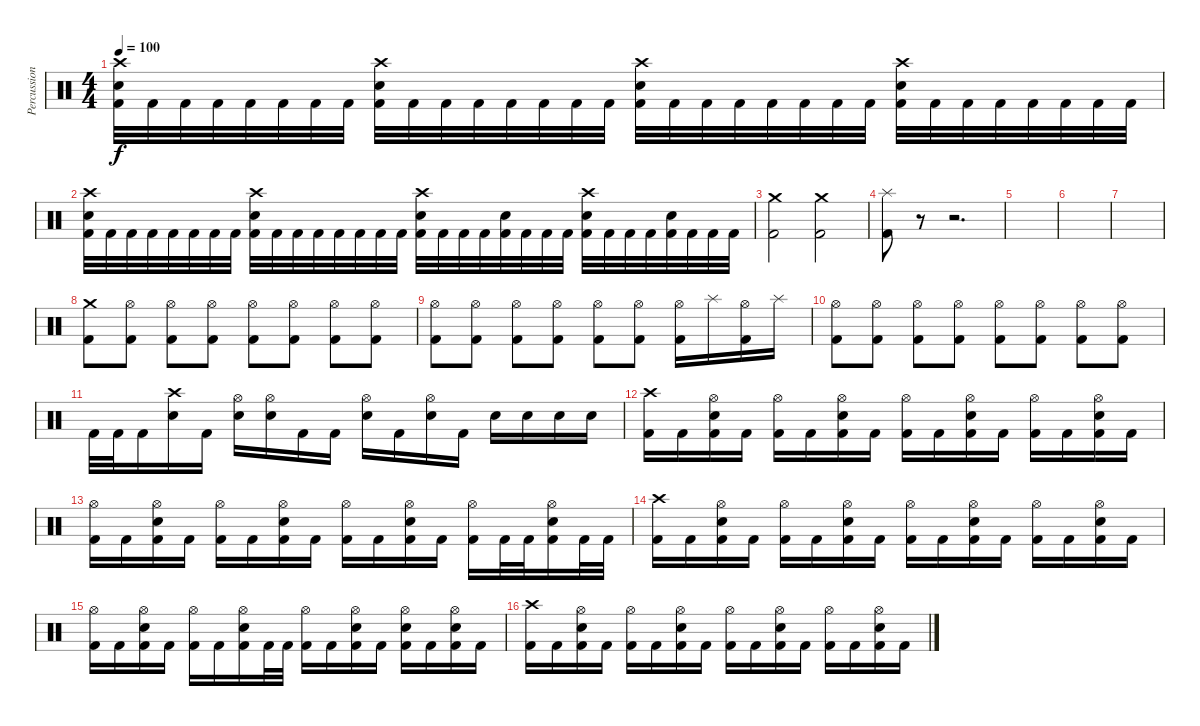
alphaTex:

\track ("Percussion" "Percussion") {instrument percussion}
\staff {score}
\articulation defaults
\ts (4 4)
\tempo 100
\clef neutral
\ks c
("Crash high (hit)" "Electric Snare (hit)" "Kick (hit) 2").32{dy f} "Kick (hit) 2".32 "Kick (hit) 2".32 "Kick (hit) 2".32 "Kick (hit) 2".32 "Kick (hit) 2".32 "Kick (hit) 2".32 "Kick (hit) 2".32 ("Crash high (hit)" "Electric Snare (hit)" "Kick (hit) 2").32 "Kick (hit) 2".32 "Kick (hit) 2".32 "Kick (hit) 2".32 "Kick (hit) 2".32 "Kick (hit) 2".32 "Kick (hit) 2".32 "Kick (hit) 2".32 ("Crash high (hit)" "Electric Snare (hit)" "Kick (hit) 2").32 "Kick (hit) 2".32 "Kick (hit) 2".32 "Kick (hit) 2".32 "Kick (hit) 2".32 "Kick (hit) 2".32 "Kick (hit) 2".32 "Kick (hit) 2".32 ("Crash high (hit)" "Electric Snare (hit)" "Kick (hit) 2").32 "Kick (hit) 2".32 "Kick (hit) 2".32 "Kick (hit) 2".32 "Kick (hit) 2".32 "Kick (hit) 2".32 "Kick (hit) 2".32 "Kick (hit) 2".32 |
("Crash high (hit)" "Electric Snare (hit)" "Kick (hit) 2").32 "Kick (hit) 2".32 "Kick (hit) 2".32 "Kick (hit) 2".32 "Kick (hit) 2".32 "Kick (hit) 2".32 "Kick (hit) 2".32 "Kick (hit) 2".32 ("Crash high (hit)" "Electric Snare (hit)" "Kick (hit) 2").32 "Kick (hit) 2".32 "Kick (hit) 2".32 "Kick (hit) 2".32 "Kick (hit) 2".32 "Kick (hit) 2".32 "Kick (hit) 2".32 "Kick (hit) 2".32 ("Crash high (hit)" "Electric Snare (hit)" "Kick (hit) 2").32 "Kick (hit) 2".32 "Kick (hit) 2".32 "Kick (hit) 2".32 ("Electric Snare (hit)" "Kick (hit) 2").32 "Kick (hit) 2".32 "Kick (hit) 2".32 "Kick (hit) 2".32 ("Crash high (hit)" "Electric Snare (hit)" "Kick (hit) 2").32 "Kick (hit) 2".32 "Kick (hit) 2".32 "Kick (hit) 2".32 ("Electric Snare (hit)" "Kick (hit) 2").32 "Kick (hit) 2".32 "Kick (hit) 2".32 "Kick (hit) 2".32 |
("Crash medium (hit)" "Kick (hit) 2").2 ("Crash medium (hit)" "Kick (hit) 2").2 |
("Splash (hit)" "Kick (hit) 2").8 r.8 r.2{d} |
|
|
|
("Crash medium (hit)" "Kick (hit) 2").8 ("Hi-Hat (open)" "Kick (hit) 2").8 ("Hi-Hat (open)" "Kick (hit) 2").8 ("Hi-Hat (open)" "Kick (hit) 2").8 ("Hi-Hat (open)" "Kick (hit) 2").8 ("Hi-Hat (open)" "Kick (hit) 2").8 ("Hi-Hat (open)" "Kick (hit) 2").8 ("Hi-Hat (open)" "Kick (hit) 2").8 |
("Hi-Hat (open)" "Kick (hit) 2").8 ("Hi-Hat (open)" "Kick (hit) 2").8 ("Hi-Hat (open)" "Kick (hit) 2").8 ("Hi-Hat (open)" "Kick (hit) 2").8 ("Hi-Hat (open)" "Kick (hit) 2").8 ("Hi-Hat (open)" "Kick (hit) 2").8 ("Hi-Hat (open)" "Kick (hit) 2").16 "Splash (hit)".16 ("Hi-Hat (open)" "Kick (hit) 2").16 "Splash (hit)".16 |
("Hi-Hat (open)" "Kick (hit) 2").8 ("Hi-Hat (open)" "Kick (hit) 2").8 ("Hi-Hat (open)" "Kick (hit) 2").8 ("Hi-Hat (open)" "Kick (hit) 2").8 ("Hi-Hat (open)" "Kick (hit) 2").8 ("Hi-Hat (open)" "Kick (hit) 2").8 ("Hi-Hat (open)" "Kick (hit) 2").8 ("Hi-Hat (open)" "Kick (hit) 2").8 |
"Kick (hit) 2".32 "Kick (hit) 2".32 "Kick (hit) 2".16 ("Crash high (hit)" "Electric Snare (hit)").16 "Kick (hit) 2".16 ("Hi-Hat (open)" "Electric Snare (hit)").16 ("Hi-Hat (open)" "Electric Snare (hit)").16 "Kick (hit) 2".16 "Kick (hit) 2".16 ("Hi-Hat (open)" "Electric Snare (hit)").16 "Kick (hit) 2".16 ("Hi-Hat (open)" "Electric Snare (hit)").16 "Kick (hit) 2".16 "Electric Snare (hit)".16 "Electric Snare (hit)".16 "Electric Snare (hit)".16 "Electric Snare (hit)".16 |
("Crash high (hit)" "Kick (hit) 2").16 "Kick (hit) 2".16 ("Hi-Hat (open)" "Electric Snare (hit)" "Kick (hit) 2").16 "Kick (hit) 2".16 ("Hi-Hat (open)" "Kick (hit) 2").16 "Kick (hit) 2".16 ("Hi-Hat (open)" "Electric Snare (hit)" "Kick (hit) 2").16 "Kick (hit) 2".16 ("Hi-Hat (open)" "Kick (hit) 2").16 "Kick (hit) 2".16 ("Hi-Hat (open)" "Electric Snare (hit)" "Kick (hit) 2").16 "Kick (hit) 2".16 ("Hi-Hat (open)" "Kick (hit) 2").16 "Kick (hit) 2".16 ("Hi-Hat (open)" "Electric Snare (hit)" "Kick (hit) 2").16 "Kick (hit) 2".16 |
("Hi-Hat (open)" "Kick (hit) 2").16 "Kick (hit) 2".16 ("Hi-Hat (open)" "Electric Snare (hit)" "Kick (hit) 2").16 "Kick (hit) 2".16 ("Hi-Hat (open)" "Kick (hit) 2").16 "Kick (hit) 2".16 ("Hi-Hat (open)" "Electric Snare (hit)" "Kick (hit) 2").16 "Kick (hit) 2".16 ("Hi-Hat (open)" "Kick (hit) 2").16 "Kick (hit) 2".16 ("Hi-Hat (open)" "Electric Snare (hit)" "Kick (hit) 2").16 "Kick (hit) 2".16 ("Hi-Hat (open)" "Kick (hit) 2").16 "Kick (hit) 2".32 "Kick (hit) 2".32 ("Hi-Hat (open)" "Electric Snare (hit)" "Kick (hit) 2").16 "Kick (hit) 2".32 "Kick (hit) 2".32 |
("Crash high (hit)" "Kick (hit) 2").16 "Kick (hit) 2".16 ("Hi-Hat (open)" "Electric Snare (hit)" "Kick (hit) 2").16 "Kick (hit) 2".16 ("Hi-Hat (open)" "Kick (hit) 2").16 "Kick (hit) 2".16 ("Hi-Hat (open)" "Electric Snare (hit)" "Kick (hit) 2").16 "Kick (hit) 2".16 ("Hi-Hat (open)" "Kick (hit) 2").16 "Kick (hit) 2".16 ("Hi-Hat (open)" "Electric Snare (hit)" "Kick (hit) 2").16 "Kick (hit) 2".16 ("Hi-Hat (open)" "Kick (hit) 2").16 "Kick (hit) 2".16 ("Hi-Hat (open)" "Electric Snare (hit)" "Kick (hit) 2").16 "Kick (hit) 2".16 |
("Hi-Hat (open)" "Kick (hit) 2").16 "Kick (hit) 2".16 ("Hi-Hat (open)" "Electric Snare (hit)" "Kick (hit) 2").16 "Kick (hit) 2".16 ("Hi-Hat (open)" "Kick (hit) 2").16 "Kick (hit) 2".16 ("Hi-Hat (open)" "Electric Snare (hit)" "Kick (hit) 2").16 "Kick (hit) 2".32 "Kick (hit) 2".32 ("Hi-Hat (open)" "Kick (hit) 2").16 "Kick (hit) 2".16 ("Hi-Hat (open)" "Electric Snare (hit)" "Kick (hit) 2").16 "Kick (hit) 2".16 ("Hi-Hat (open)" "Electric Snare (hit)" "Kick (hit) 2").16 "Kick (hit) 2".16 ("Hi-Hat (open)" "Electric Snare (hit)" "Kick (hit) 2").16 "Kick (hit) 2".16 |
("Crash high (hit)" "Kick (hit) 2").16 "Kick (hit) 2".16 ("Hi-Hat (open)" "Electric Snare (hit)" "Kick (hit) 2").16 "Kick (hit) 2".16 ("Hi-Hat (open)" "Kick (hit) 2").16 "Kick (hit) 2".16 ("Hi-Hat (open)" "Electric Snare (hit)" "Kick (hit) 2").16 "Kick (hit) 2".16 ("Hi-Hat (open)" "Kick (hit) 2").16 "Kick (hit) 2".16 ("Hi-Hat (open)" "Electric Snare (hit)" "Kick (hit) 2").16 "Kick (hit) 2".16 ("Hi-Hat (open)" "Kick (hit) 2").16 "Kick (hit) 2".16 ("Hi-Hat (open)" "Electric Snare (hit)" "Kick (hit) 2").16 "Kick (hit) 2".16
